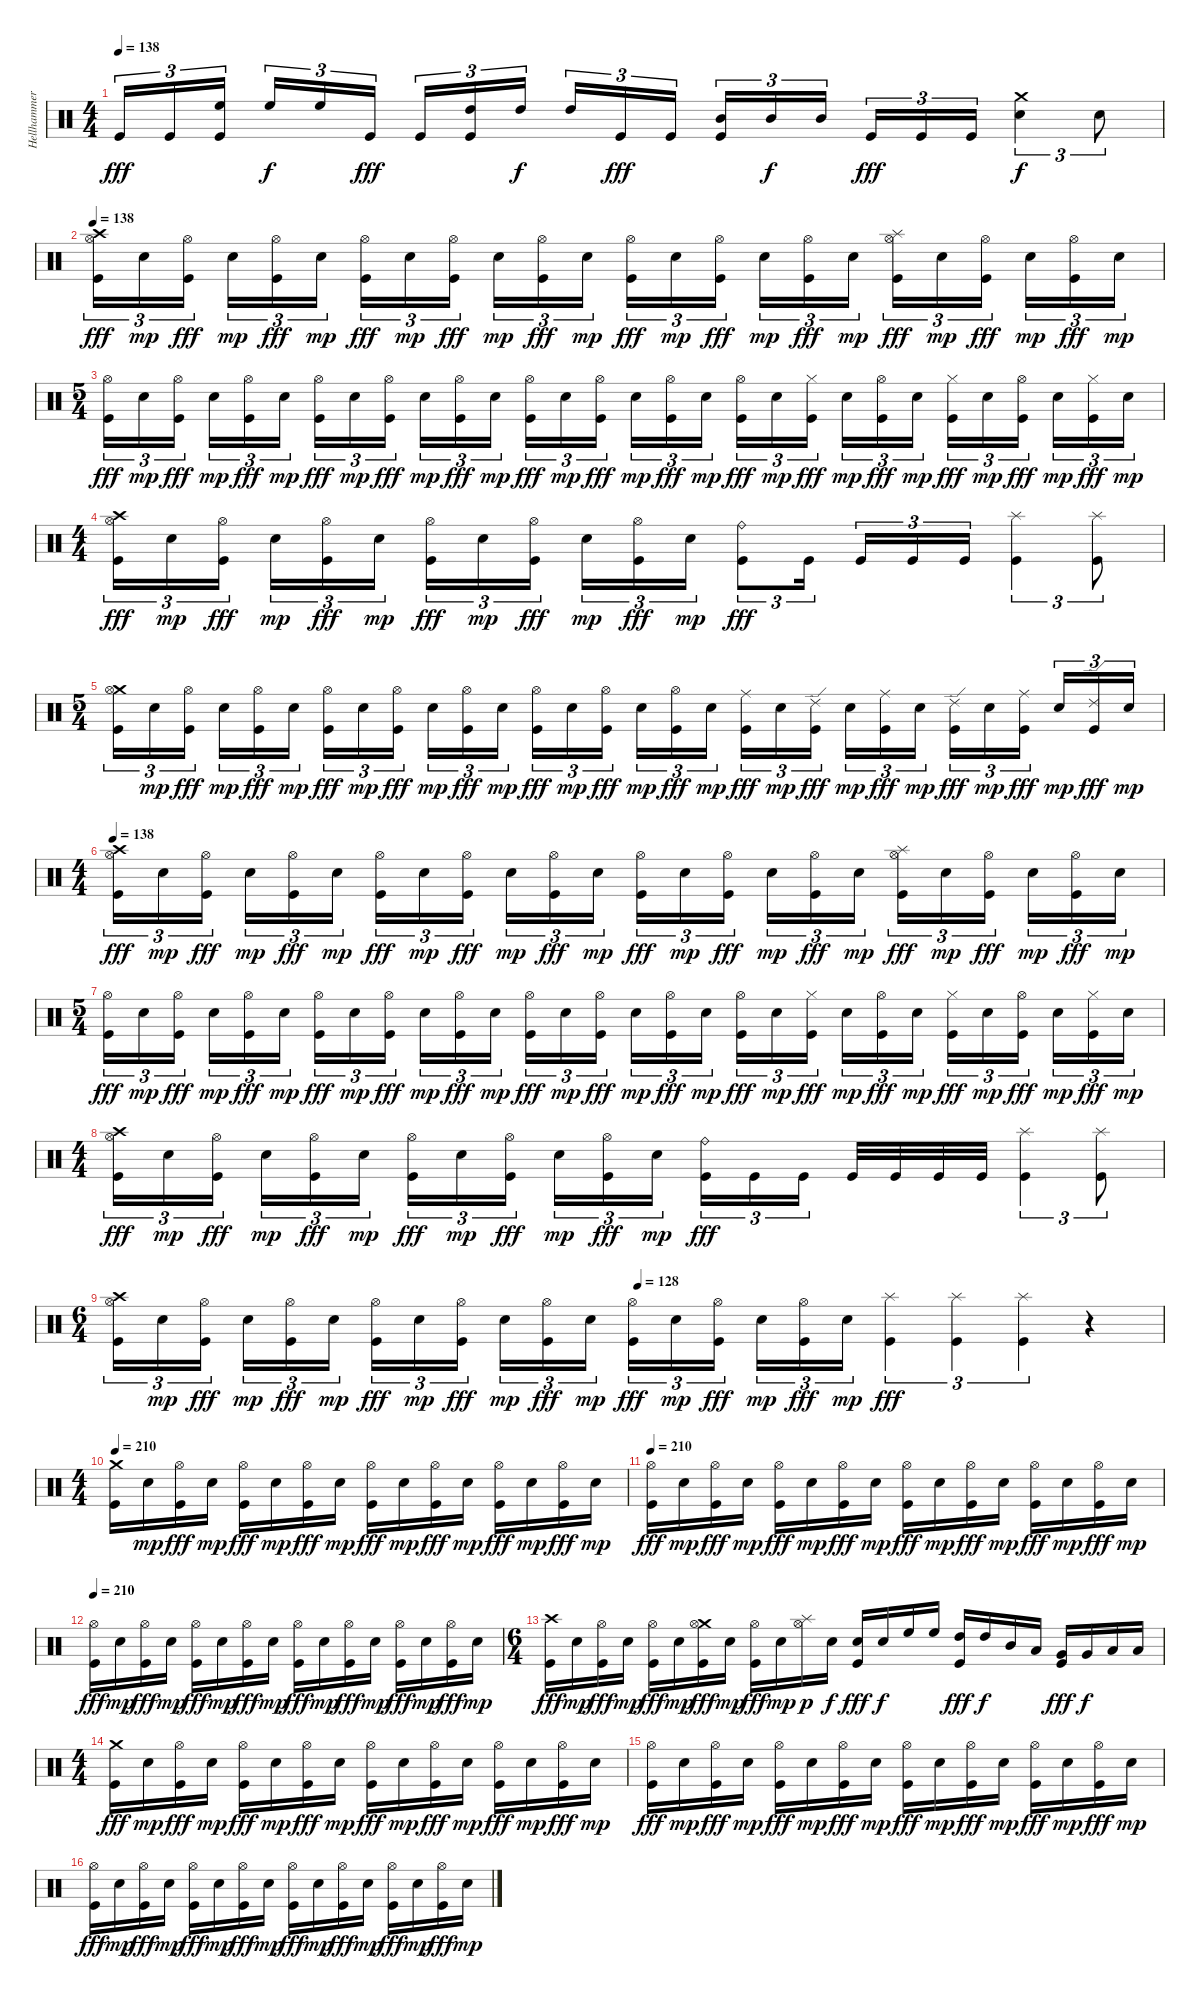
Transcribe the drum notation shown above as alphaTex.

\track ("Hellhammer" "Hellhammer") {instrument percussion}
\staff {score}
\articulation defaults
\ts (4 4)
\tempo 138
\tempo 148
\tempo 138
\clef neutral
\ks c "Kick (hit)".16{tu (3 2) dy fff} "Kick (hit)".16{tu (3 2)}
("High Floor Tom (hit)" "Kick (hit)").16{tu (3 2)} "High Floor Tom (hit)".16{tu (3 2) dy f} "High Floor Tom (hit)".16{tu (3 2)} "Kick (hit)".16{tu (3 2) dy fff} "Kick (hit)".16{tu (3 2)} ("High Tom (hit)" "Kick (hit)").16{tu (3 2)} "High Tom (hit)".16{tu (3 2) dy f} "High Tom (hit)".16{tu (3 2)} "Kick (hit)".16{tu (3 2) dy fff} "Kick (hit)".16{tu (3 2)} ("Mid Tom (hit)" "Kick (hit)").16{tu (3 2)} "Mid Tom (hit)".16{tu (3 2) dy f} "Mid Tom (hit)".16{tu (3 2)} "Kick (hit)".16{tu (3 2) dy fff} "Kick (hit)".16{tu (3 2)} "Kick (hit)".16{tu (3 2)} ("Crash medium (hit)" "Electric Snare (hit)").4{tu (3 2) dy f} "Electric Snare (hit)".8{tu (3 2)} |
\tempo 138
("Crash high (hit)" "Hi-Hat (open)" "Kick (hit)").16{tu (3 2) dy fff} "Electric Snare (hit)".16{tu (3 2) dy mp} ("Hi-Hat (open)" "Kick (hit)").16{tu (3 2) dy fff} "Electric Snare (hit)".16{tu (3 2) dy mp} ("Hi-Hat (open)" "Kick (hit)").16{tu (3 2) dy fff} "Electric Snare (hit)".16{tu (3 2) dy mp} ("Hi-Hat (open)" "Kick (hit)").16{tu (3 2) dy fff} "Electric Snare (hit)".16{tu (3 2) dy mp} ("Hi-Hat (open)" "Kick (hit)").16{tu (3 2) dy fff} "Electric Snare (hit)".16{tu (3 2) dy mp} ("Hi-Hat (open)" "Kick (hit)").16{tu (3 2) dy fff} "Electric Snare (hit)".16{tu (3 2) dy mp} ("Hi-Hat (open)" "Kick (hit)").16{tu (3 2) dy fff} "Electric Snare (hit)".16{tu (3 2) dy mp} ("Hi-Hat (open)" "Kick (hit)").16{tu (3 2) dy fff} "Electric Snare (hit)".16{tu (3 2) dy mp} ("Hi-Hat (open)" "Kick (hit)").16{tu (3 2) dy fff} "Electric Snare (hit)".16{tu (3 2) dy mp} ("Splash (hit)" "Hi-Hat (open)" "Kick (hit)").16{tu (3 2) dy fff} "Electric Snare (hit)".16{tu (3 2) dy mp} ("Hi-Hat (open)" "Kick (hit)").16{tu (3 2) dy fff} "Electric Snare (hit)".16{tu (3 2) dy mp} ("Hi-Hat (open)" "Kick (hit)").16{tu (3 2) dy fff} "Electric Snare (hit)".16{tu (3 2) dy mp} |
\ts (5 4)
("Hi-Hat (open)" "Kick (hit)").16{tu (3 2) dy fff} "Electric Snare (hit)".16{tu (3 2) dy mp} ("Hi-Hat (open)" "Kick (hit)").16{tu (3 2) dy fff} "Electric Snare (hit)".16{tu (3 2) dy mp} ("Hi-Hat (open)" "Kick (hit)").16{tu (3 2) dy fff} "Electric Snare (hit)".16{tu (3 2) dy mp} ("Hi-Hat (open)" "Kick (hit)").16{tu (3 2) dy fff} "Electric Snare (hit)".16{tu (3 2) dy mp} ("Hi-Hat (open)" "Kick (hit)").16{tu (3 2) dy fff} "Electric Snare (hit)".16{tu (3 2) dy mp} ("Hi-Hat (open)" "Kick (hit)").16{tu (3 2) dy fff} "Electric Snare (hit)".16{tu (3 2) dy mp} ("Hi-Hat (open)" "Kick (hit)").16{tu (3 2) dy fff} "Electric Snare (hit)".16{tu (3 2) dy mp} ("Hi-Hat (open)" "Kick (hit)").16{tu (3 2) dy fff} "Electric Snare (hit)".16{tu (3 2) dy mp} ("Hi-Hat (open)" "Kick (hit)").16{tu (3 2) dy fff} "Electric Snare (hit)".16{tu (3 2) dy mp} ("Hi-Hat (open)" "Kick (hit)").16{tu (3 2) dy fff} "Electric Snare (hit)".16{tu (3 2) dy mp} ("Hi-Hat (closed)" "Kick (hit)").16{tu (3 2) dy fff} "Electric Snare (hit)".16{tu (3 2) dy mp} ("Hi-Hat (open)" "Kick (hit)").16{tu (3 2) dy fff} "Electric Snare (hit)".16{tu (3 2) dy mp} ("Hi-Hat (closed)" "Kick (hit)").16{tu (3 2) dy fff} "Electric Snare (hit)".16{tu (3 2) dy mp} ("Hi-Hat (open)" "Kick (hit)").16{tu (3 2) dy fff} "Electric Snare (hit)".16{tu (3 2) dy mp} ("Hi-Hat (closed)" "Kick (hit)").16{tu (3 2) dy fff} "Electric Snare (hit)".16{tu (3 2) dy mp} |
\ts (4 4)
("Crash high (hit)" "Hi-Hat (open)" "Kick (hit)").16{tu (3 2) dy fff} "Electric Snare (hit)".16{tu (3 2) dy mp} ("Hi-Hat (open)" "Kick (hit)").16{tu (3 2) dy fff} "Electric Snare (hit)".16{tu (3 2) dy mp} ("Hi-Hat (open)" "Kick (hit)").16{tu (3 2) dy fff} "Electric Snare (hit)".16{tu (3 2) dy mp} ("Hi-Hat (open)" "Kick (hit)").16{tu (3 2) dy fff} "Electric Snare (hit)".16{tu (3 2) dy mp} ("Hi-Hat (open)" "Kick (hit)").16{tu (3 2) dy fff} "Electric Snare (hit)".16{tu (3 2) dy mp} ("Hi-Hat (open)" "Kick (hit)").16{tu (3 2) dy fff} "Electric Snare (hit)".16{tu (3 2) dy mp} ("Ride (bell)" "Kick (hit)").8{tu (3 2) dy fff} "Kick (hit)".16{tu (3 2)} "Kick (hit)".16{tu (3 2)} "Kick (hit)".16{tu (3 2)} "Kick (hit)".16{tu (3 2)} ("Splash (hit)" "Kick (hit)").4{tu (3 2)} ("Splash (hit)" "Kick (hit)").8{tu (3 2)} |
\ts (5 4)
("Crash medium (hit)" "Hi-Hat (open)" "Kick (hit)").16{tu (3 2)} "Electric Snare (hit)".16{tu (3 2) dy mp} ("Hi-Hat (open)" "Kick (hit)").16{tu (3 2) dy fff} "Electric Snare (hit)".16{tu (3 2) dy mp} ("Hi-Hat (open)" "Kick (hit)").16{tu (3 2) dy fff} "Electric Snare (hit)".16{tu (3 2) dy mp} ("Hi-Hat (open)" "Kick (hit)").16{tu (3 2) dy fff} "Electric Snare (hit)".16{tu (3 2) dy mp} ("Hi-Hat (open)" "Kick (hit)").16{tu (3 2) dy fff} "Electric Snare (hit)".16{tu (3 2) dy mp} ("Hi-Hat (open)" "Kick (hit)").16{tu (3 2) dy fff} "Electric Snare (hit)".16{tu (3 2) dy mp} ("Hi-Hat (open)" "Kick (hit)").16{tu (3 2) dy fff} "Electric Snare (hit)".16{tu (3 2) dy mp} ("Hi-Hat (open)" "Kick (hit)").16{tu (3 2) dy fff} "Electric Snare (hit)".16{tu (3 2) dy mp} ("Hi-Hat (open)" "Kick (hit)").16{tu (3 2) dy fff} "Electric Snare (hit)".16{tu (3 2) dy mp} ("Ride (middle)" "Kick (hit)").16{tu (3 2) dy fff} "Electric Snare (hit)".16{tu (3 2) dy mp} ("Ride (edge) 2" "Kick (hit)").16{tu (3 2) dy fff} "Electric Snare (hit)".16{tu (3 2) dy mp} ("Ride (middle)" "Kick (hit)").16{tu (3 2) dy fff} "Electric Snare (hit)".16{tu (3 2) dy mp} ("Ride (edge) 2" "Kick (hit)").16{tu (3 2) dy fff} "Electric Snare (hit)".16{tu (3 2) dy mp} ("Ride (middle)" "Kick (hit)").16{tu (3 2) dy fff} "Electric Snare (hit)".16{tu (3 2) dy mp} ("Ride (edge) 2" "Kick (hit)").16{tu (3 2) dy fff} "Electric Snare (hit)".16{tu (3 2) dy mp} |
\ts (4 4)
\tempo 138
("Crash high (hit)" "Hi-Hat (open)" "Kick (hit)").16{tu (3 2) dy fff} "Electric Snare (hit)".16{tu (3 2) dy mp} ("Hi-Hat (open)" "Kick (hit)").16{tu (3 2) dy fff} "Electric Snare (hit)".16{tu (3 2) dy mp} ("Hi-Hat (open)" "Kick (hit)").16{tu (3 2) dy fff} "Electric Snare (hit)".16{tu (3 2) dy mp} ("Hi-Hat (open)" "Kick (hit)").16{tu (3 2) dy fff} "Electric Snare (hit)".16{tu (3 2) dy mp} ("Hi-Hat (open)" "Kick (hit)").16{tu (3 2) dy fff} "Electric Snare (hit)".16{tu (3 2) dy mp} ("Hi-Hat (open)" "Kick (hit)").16{tu (3 2) dy fff} "Electric Snare (hit)".16{tu (3 2) dy mp} ("Hi-Hat (open)" "Kick (hit)").16{tu (3 2) dy fff} "Electric Snare (hit)".16{tu (3 2) dy mp} ("Hi-Hat (open)" "Kick (hit)").16{tu (3 2) dy fff} "Electric Snare (hit)".16{tu (3 2) dy mp} ("Hi-Hat (open)" "Kick (hit)").16{tu (3 2) dy fff} "Electric Snare (hit)".16{tu (3 2) dy mp} ("Splash (hit)" "Hi-Hat (open)" "Kick (hit)").16{tu (3 2) dy fff} "Electric Snare (hit)".16{tu (3 2) dy mp} ("Hi-Hat (open)" "Kick (hit)").16{tu (3 2) dy fff} "Electric Snare (hit)".16{tu (3 2) dy mp} ("Hi-Hat (open)" "Kick (hit)").16{tu (3 2) dy fff} "Electric Snare (hit)".16{tu (3 2) dy mp} |
\ts (5 4)
("Hi-Hat (open)" "Kick (hit)").16{tu (3 2) dy fff} "Electric Snare (hit)".16{tu (3 2) dy mp} ("Hi-Hat (open)" "Kick (hit)").16{tu (3 2) dy fff} "Electric Snare (hit)".16{tu (3 2) dy mp} ("Hi-Hat (open)" "Kick (hit)").16{tu (3 2) dy fff} "Electric Snare (hit)".16{tu (3 2) dy mp} ("Hi-Hat (open)" "Kick (hit)").16{tu (3 2) dy fff} "Electric Snare (hit)".16{tu (3 2) dy mp} ("Hi-Hat (open)" "Kick (hit)").16{tu (3 2) dy fff} "Electric Snare (hit)".16{tu (3 2) dy mp} ("Hi-Hat (open)" "Kick (hit)").16{tu (3 2) dy fff} "Electric Snare (hit)".16{tu (3 2) dy mp} ("Hi-Hat (open)" "Kick (hit)").16{tu (3 2) dy fff} "Electric Snare (hit)".16{tu (3 2) dy mp} ("Hi-Hat (open)" "Kick (hit)").16{tu (3 2) dy fff} "Electric Snare (hit)".16{tu (3 2) dy mp} ("Hi-Hat (open)" "Kick (hit)").16{tu (3 2) dy fff} "Electric Snare (hit)".16{tu (3 2) dy mp} ("Hi-Hat (open)" "Kick (hit)").16{tu (3 2) dy fff} "Electric Snare (hit)".16{tu (3 2) dy mp} ("Hi-Hat (closed)" "Kick (hit)").16{tu (3 2) dy fff} "Electric Snare (hit)".16{tu (3 2) dy mp} ("Hi-Hat (open)" "Kick (hit)").16{tu (3 2) dy fff} "Electric Snare (hit)".16{tu (3 2) dy mp} ("Hi-Hat (closed)" "Kick (hit)").16{tu (3 2) dy fff} "Electric Snare (hit)".16{tu (3 2) dy mp} ("Hi-Hat (open)" "Kick (hit)").16{tu (3 2) dy fff} "Electric Snare (hit)".16{tu (3 2) dy mp} ("Hi-Hat (closed)" "Kick (hit)").16{tu (3 2) dy fff} "Electric Snare (hit)".16{tu (3 2) dy mp} |
\ts (4 4)
("Crash high (hit)" "Hi-Hat (open)" "Kick (hit)").16{tu (3 2) dy fff} "Electric Snare (hit)".16{tu (3 2) dy mp} ("Hi-Hat (open)" "Kick (hit)").16{tu (3 2) dy fff} "Electric Snare (hit)".16{tu (3 2) dy mp} ("Hi-Hat (open)" "Kick (hit)").16{tu (3 2) dy fff} "Electric Snare (hit)".16{tu (3 2) dy mp} ("Hi-Hat (open)" "Kick (hit)").16{tu (3 2) dy fff} "Electric Snare (hit)".16{tu (3 2) dy mp} ("Hi-Hat (open)" "Kick (hit)").16{tu (3 2) dy fff} "Electric Snare (hit)".16{tu (3 2) dy mp} ("Hi-Hat (open)" "Kick (hit)").16{tu (3 2) dy fff} "Electric Snare (hit)".16{tu (3 2) dy mp} ("Ride (bell)" "Kick (hit)").16{tu (3 2) dy fff} "Kick (hit)".16{tu (3 2)} "Kick (hit)".16{tu (3 2)} "Kick (hit)".32 "Kick (hit)".32 "Kick (hit)".32 "Kick (hit)".32 ("Splash (hit)" "Kick (hit)").4{tu (3 2)} ("Splash (hit)" "Kick (hit)").8{tu (3 2)} |
\ts (6 4)
\tempo (128 0.5)
("Crash high (hit)" "Hi-Hat (open)" "Kick (hit)").16{tu (3 2)} "Electric Snare (hit)".16{tu (3 2) dy mp} ("Hi-Hat (open)" "Kick (hit)").16{tu (3 2) dy fff} "Electric Snare (hit)".16{tu (3 2) dy mp} ("Hi-Hat (open)" "Kick (hit)").16{tu (3 2) dy fff} "Electric Snare (hit)".16{tu (3 2) dy mp} ("Hi-Hat (open)" "Kick (hit)").16{tu (3 2) dy fff} "Electric Snare (hit)".16{tu (3 2) dy mp} ("Hi-Hat (open)" "Kick (hit)").16{tu (3 2) dy fff} "Electric Snare (hit)".16{tu (3 2) dy mp} ("Hi-Hat (open)" "Kick (hit)").16{tu (3 2) dy fff} "Electric Snare (hit)".16{tu (3 2) dy mp} ("Hi-Hat (open)" "Kick (hit)").16{tu (3 2) dy fff} "Electric Snare (hit)".16{tu (3 2) dy mp} ("Hi-Hat (open)" "Kick (hit)").16{tu (3 2) dy fff} "Electric Snare (hit)".16{tu (3 2) dy mp} ("Hi-Hat (open)" "Kick (hit)").16{tu (3 2) dy fff} "Electric Snare (hit)".16{tu (3 2) dy mp} ("Splash (hit)" "Kick (hit)").4{tu (3 2) dy fff} ("Splash (hit)" "Kick (hit)").4{tu (3 2)} ("Splash (hit)" "Kick (hit)").4{tu (3 2)} r.4 |
\ts (4 4)
\tempo 210
("Crash medium (hit)" "Kick (hit)").16 "Electric Snare (hit)".16{dy mp} ("Hi-Hat (open)" "Kick (hit)").16{dy fff} "Electric Snare (hit)".16{dy mp} ("Hi-Hat (open)" "Kick (hit)").16{dy fff} "Electric Snare (hit)".16{dy mp} ("Hi-Hat (open)" "Kick (hit)").16{dy fff} "Electric Snare (hit)".16{dy mp} ("Hi-Hat (open)" "Kick (hit)").16{dy fff} "Electric Snare (hit)".16{dy mp} ("Hi-Hat (open)" "Kick (hit)").16{dy fff} "Electric Snare (hit)".16{dy mp} ("Hi-Hat (open)" "Kick (hit)").16{dy fff} "Electric Snare (hit)".16{dy mp} ("Hi-Hat (open)" "Kick (hit)").16{dy fff} "Electric Snare (hit)".16{dy mp} |
\tempo 210
("Hi-Hat (open)" "Kick (hit)").16{dy fff} "Electric Snare (hit)".16{dy mp} ("Hi-Hat (open)" "Kick (hit)").16{dy fff} "Electric Snare (hit)".16{dy mp} ("Hi-Hat (open)" "Kick (hit)").16{dy fff} "Electric Snare (hit)".16{dy mp} ("Hi-Hat (open)" "Kick (hit)").16{dy fff} "Electric Snare (hit)".16{dy mp} ("Hi-Hat (open)" "Kick (hit)").16{dy fff} "Electric Snare (hit)".16{dy mp} ("Hi-Hat (open)" "Kick (hit)").16{dy fff} "Electric Snare (hit)".16{dy mp} ("Hi-Hat (open)" "Kick (hit)").16{dy fff} "Electric Snare (hit)".16{dy mp} ("Hi-Hat (open)" "Kick (hit)").16{dy fff} "Electric Snare (hit)".16{dy mp} |
\tempo 210
("Hi-Hat (open)" "Kick (hit)").16{dy fff} "Electric Snare (hit)".16{dy mp} ("Hi-Hat (open)" "Kick (hit)").16{dy fff} "Electric Snare (hit)".16{dy mp} ("Hi-Hat (open)" "Kick (hit)").16{dy fff} "Electric Snare (hit)".16{dy mp} ("Hi-Hat (open)" "Kick (hit)").16{dy fff} "Electric Snare (hit)".16{dy mp} ("Hi-Hat (open)" "Kick (hit)").16{dy fff} "Electric Snare (hit)".16{dy mp} ("Hi-Hat (open)" "Kick (hit)").16{dy fff} "Electric Snare (hit)".16{dy mp} ("Hi-Hat (open)" "Kick (hit)").16{dy fff} "Electric Snare (hit)".16{dy mp} ("Hi-Hat (open)" "Kick (hit)").16{dy fff} "Electric Snare (hit)".16{dy mp} |
\ts (6 4)
("Crash high (hit)" "Kick (hit)").16{dy fff} "Electric Snare (hit)".16{dy mp} ("Hi-Hat (open)" "Kick (hit)").16{dy fff} "Electric Snare (hit)".16{dy mp} ("Hi-Hat (open)" "Kick (hit)").16{dy fff} "Electric Snare (hit)".16{dy mp} ("Crash medium (hit)" "Hi-Hat (open)" "Kick (hit)").16{dy fff} "Electric Snare (hit)".16{dy mp} ("Hi-Hat (open)" "Kick (hit)").16{dy fff} "Electric Snare (hit)".16{dy mp} ("Hi-Hat (open)" "Splash (hit)").16{dy p} "Electric Snare (hit)".16{dy f} ("Kick (hit)" "Electric Snare (hit)").16{dy fff} "Electric Snare (hit)".16{dy f} "High Floor Tom (hit)".16 "High Floor Tom (hit)".16 ("Kick (hit)" "High Tom (hit)").16{dy fff} "High Tom (hit)".16{dy f} "Mid Tom (hit)".16 "Low Tom (hit)".16 ("Kick (hit)" "Very Low Tom (hit)").16{dy fff} "Very Low Tom (hit)".16{dy f} "Low Floor Tom (hit)".16 "Low Floor Tom (hit)".16 |
\ts (4 4)
("Crash medium (hit)" "Kick (hit)").16{dy fff} "Electric Snare (hit)".16{dy mp} ("Hi-Hat (open)" "Kick (hit)").16{dy fff} "Electric Snare (hit)".16{dy mp} ("Hi-Hat (open)" "Kick (hit)").16{dy fff} "Electric Snare (hit)".16{dy mp} ("Hi-Hat (open)" "Kick (hit)").16{dy fff} "Electric Snare (hit)".16{dy mp} ("Hi-Hat (open)" "Kick (hit)").16{dy fff} "Electric Snare (hit)".16{dy mp} ("Hi-Hat (open)" "Kick (hit)").16{dy fff} "Electric Snare (hit)".16{dy mp} ("Hi-Hat (open)" "Kick (hit)").16{dy fff} "Electric Snare (hit)".16{dy mp} ("Hi-Hat (open)" "Kick (hit)").16{dy fff} "Electric Snare (hit)".16{dy mp} |
("Hi-Hat (open)" "Kick (hit)").16{dy fff} "Electric Snare (hit)".16{dy mp} ("Hi-Hat (open)" "Kick (hit)").16{dy fff} "Electric Snare (hit)".16{dy mp} ("Hi-Hat (open)" "Kick (hit)").16{dy fff} "Electric Snare (hit)".16{dy mp} ("Hi-Hat (open)" "Kick (hit)").16{dy fff} "Electric Snare (hit)".16{dy mp} ("Hi-Hat (open)" "Kick (hit)").16{dy fff} "Electric Snare (hit)".16{dy mp} ("Hi-Hat (open)" "Kick (hit)").16{dy fff} "Electric Snare (hit)".16{dy mp} ("Hi-Hat (open)" "Kick (hit)").16{dy fff} "Electric Snare (hit)".16{dy mp} ("Hi-Hat (open)" "Kick (hit)").16{dy fff} "Electric Snare (hit)".16{dy mp} |
("Hi-Hat (open)" "Kick (hit)").16{dy fff} "Electric Snare (hit)".16{dy mp} ("Hi-Hat (open)" "Kick (hit)").16{dy fff} "Electric Snare (hit)".16{dy mp} ("Hi-Hat (open)" "Kick (hit)").16{dy fff} "Electric Snare (hit)".16{dy mp} ("Hi-Hat (open)" "Kick (hit)").16{dy fff} "Electric Snare (hit)".16{dy mp} ("Hi-Hat (open)" "Kick (hit)").16{dy fff} "Electric Snare (hit)".16{dy mp} ("Hi-Hat (open)" "Kick (hit)").16{dy fff} "Electric Snare (hit)".16{dy mp} ("Hi-Hat (open)" "Kick (hit)").16{dy fff} "Electric Snare (hit)".16{dy mp} ("Hi-Hat (open)" "Kick (hit)").16{dy fff} "Electric Snare (hit)".16{dy mp}
